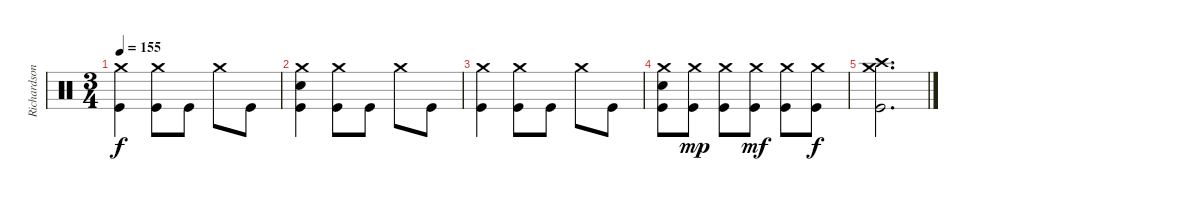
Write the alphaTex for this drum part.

\track ("Richardson" "Richardson") {instrument percussion}
\staff {score}
\articulation defaults
\ts (3 4)
\tempo 155
\clef neutral
\ks c
("Crash medium (hit)" "Kick (hit)").4{dy f} ("Crash medium (hit)" "Kick (hit)").8 "Kick (hit)".8 "Crash medium (hit)".8 "Kick (hit)".8 |
("Crash medium (hit)" "Electric Snare (hit)" "Kick (hit)").4 ("Crash medium (hit)" "Kick (hit)").8 "Kick (hit)".8 "Crash medium (hit)".8 "Kick (hit)".8 |
("Crash medium (hit)" "Kick (hit)").4 ("Crash medium (hit)" "Kick (hit)").8 "Kick (hit)".8 "Crash medium (hit)".8 "Kick (hit)".8 |
("Crash medium (hit)" "Electric Snare (hit)" "Kick (hit)").8 ("Crash medium (hit)" "Kick (hit)").8{dy mp} ("Crash medium (hit)" "Kick (hit)").8 ("Crash medium (hit)" "Kick (hit)").8{dy mf} ("Crash medium (hit)" "Kick (hit)").8 ("Crash medium (hit)" "Kick (hit)").8{dy f} |
("Crash medium (hit)" "Crash high (hit)" "Kick (hit)").2{d}
